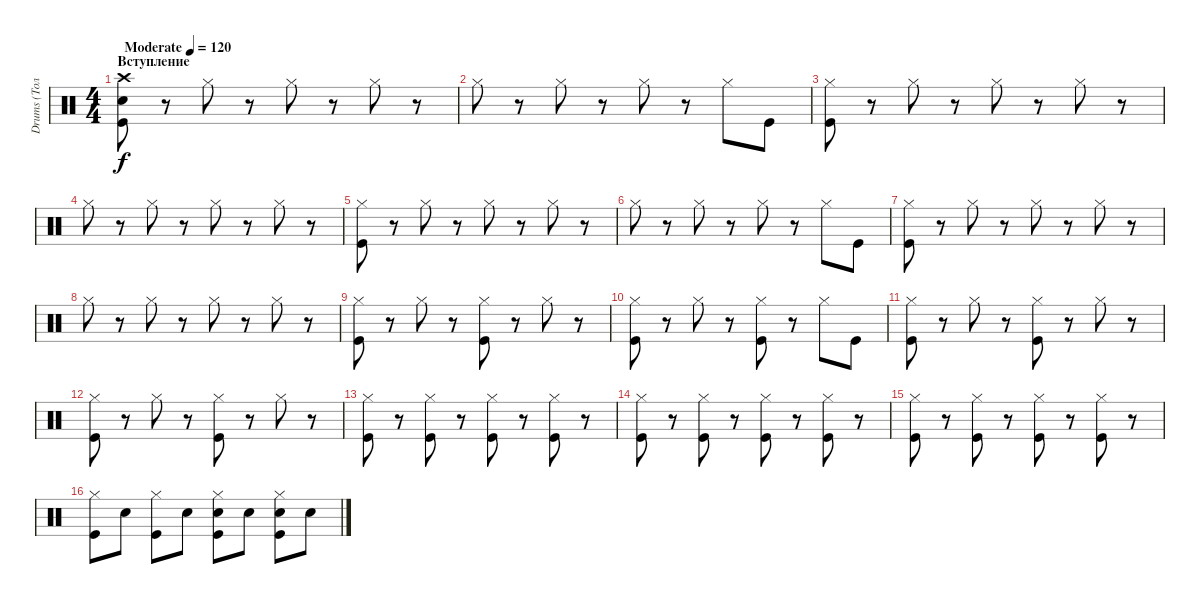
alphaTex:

\track ("Drums (Толян)" "Drums (Тол") {instrument percussion}
\staff {score}
\articulation defaults
\ts (4 4)
\section ("" "Вступление")
\tempo (120 "Moderate")
\tempo 200
\tempo (120 "Moderate")
\clef neutral
\ks c
("Crash high (hit)" "Electric Snare (hit)" "Kick (hit)").8{dy f} r.8 "Hi-Hat (closed)".8 r.8 "Hi-Hat (closed)".8 r.8 "Hi-Hat (closed)".8 r.8 |
"Hi-Hat (closed)".8 r.8 "Hi-Hat (closed)".8 r.8 "Hi-Hat (closed)".8 r.8 "Hi-Hat (closed)".8 "Kick (hit)".8 |
("Hi-Hat (closed)" "Kick (hit)").8 r.8 "Hi-Hat (closed)".8 r.8 "Hi-Hat (closed)".8 r.8 "Hi-Hat (closed)".8 r.8 |
"Hi-Hat (closed)".8 r.8 "Hi-Hat (closed)".8 r.8 "Hi-Hat (closed)".8 r.8 "Hi-Hat (closed)".8 r.8 |
("Hi-Hat (closed)" "Kick (hit)").8 r.8 "Hi-Hat (closed)".8 r.8 "Hi-Hat (closed)".8 r.8 "Hi-Hat (closed)".8 r.8 |
"Hi-Hat (closed)".8 r.8 "Hi-Hat (closed)".8 r.8 "Hi-Hat (closed)".8 r.8 "Hi-Hat (closed)".8 "Kick (hit)".8 |
("Hi-Hat (closed)" "Kick (hit)").8 r.8 "Hi-Hat (closed)".8 r.8 "Hi-Hat (closed)".8 r.8 "Hi-Hat (closed)".8 r.8 |
"Hi-Hat (closed)".8 r.8 "Hi-Hat (closed)".8 r.8 "Hi-Hat (closed)".8 r.8 "Hi-Hat (closed)".8 r.8 |
("Hi-Hat (closed)" "Kick (hit)").8 r.8 "Hi-Hat (closed)".8 r.8 ("Hi-Hat (closed)" "Kick (hit)").8 r.8 "Hi-Hat (closed)".8 r.8 |
("Hi-Hat (closed)" "Kick (hit)").8 r.8 "Hi-Hat (closed)".8 r.8 ("Hi-Hat (closed)" "Kick (hit)").8 r.8 "Hi-Hat (closed)".8 "Kick (hit)".8 |
("Hi-Hat (closed)" "Kick (hit)").8 r.8 "Hi-Hat (closed)".8 r.8 ("Hi-Hat (closed)" "Kick (hit)").8 r.8 "Hi-Hat (closed)".8 r.8 |
("Hi-Hat (closed)" "Kick (hit)").8 r.8 "Hi-Hat (closed)".8 r.8 ("Hi-Hat (closed)" "Kick (hit)").8 r.8 "Hi-Hat (closed)".8 r.8 |
("Hi-Hat (closed)" "Kick (hit)").8 r.8 ("Hi-Hat (closed)" "Kick (hit)").8 r.8 ("Hi-Hat (closed)" "Kick (hit)").8 r.8 ("Hi-Hat (closed)" "Kick (hit)").8 r.8 |
("Hi-Hat (closed)" "Kick (hit)").8 r.8 ("Hi-Hat (closed)" "Kick (hit)").8 r.8 ("Hi-Hat (closed)" "Kick (hit)").8 r.8 ("Hi-Hat (closed)" "Kick (hit)").8 r.8 |
("Hi-Hat (closed)" "Kick (hit)").8 r.8 ("Hi-Hat (closed)" "Kick (hit)").8 r.8 ("Hi-Hat (closed)" "Kick (hit)").8 r.8 ("Hi-Hat (closed)" "Kick (hit)").8 r.8 |
("Hi-Hat (closed)" "Kick (hit)").8 "Electric Snare (hit)".8 ("Hi-Hat (closed)" "Kick (hit)").8 "Electric Snare (hit)".8 ("Hi-Hat (closed)" "Electric Snare (hit)" "Kick (hit)").8 "Electric Snare (hit)".8 ("Hi-Hat (closed)" "Electric Snare (hit)" "Kick (hit)").8 "Electric Snare (hit)".8
